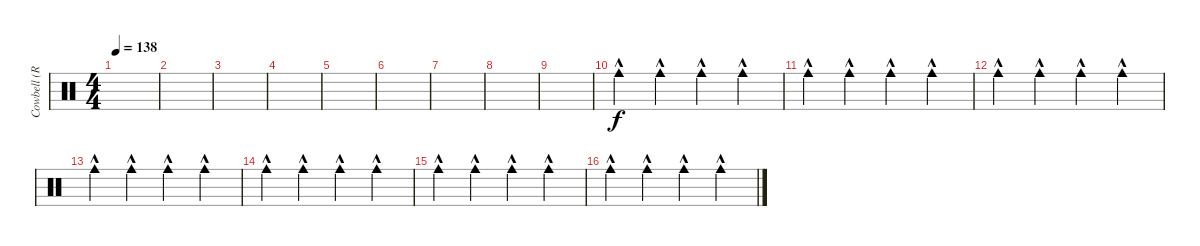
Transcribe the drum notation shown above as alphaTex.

\track ("Cowbell (Ringo Starr)" "Cowbell (R") {instrument percussion}
\staff {score}
\articulation defaults
\ts (4 4)
\tempo 138
\clef neutral
\ks c
|
|
|
|
|
|
|
|
|
"Cowbell medium (hit)"{hac}.4 "Cowbell medium (hit)"{hac}.4 "Cowbell medium (hit)"{hac}.4 "Cowbell medium (hit)"{hac}.4 |
"Cowbell medium (hit)"{hac}.4 "Cowbell medium (hit)"{hac}.4 "Cowbell medium (hit)"{hac}.4 "Cowbell medium (hit)"{hac}.4 |
"Cowbell medium (hit)"{hac}.4 "Cowbell medium (hit)"{hac}.4 "Cowbell medium (hit)"{hac}.4 "Cowbell medium (hit)"{hac}.4 |
"Cowbell medium (hit)"{hac}.4 "Cowbell medium (hit)"{hac}.4 "Cowbell medium (hit)"{hac}.4 "Cowbell medium (hit)"{hac}.4 |
"Cowbell medium (hit)"{hac}.4 "Cowbell medium (hit)"{hac}.4 "Cowbell medium (hit)"{hac}.4 "Cowbell medium (hit)"{hac}.4 |
"Cowbell medium (hit)"{hac}.4 "Cowbell medium (hit)"{hac}.4 "Cowbell medium (hit)"{hac}.4 "Cowbell medium (hit)"{hac}.4 |
"Cowbell medium (hit)"{hac}.4 "Cowbell medium (hit)"{hac}.4 "Cowbell medium (hit)"{hac}.4 "Cowbell medium (hit)"{hac}.4
